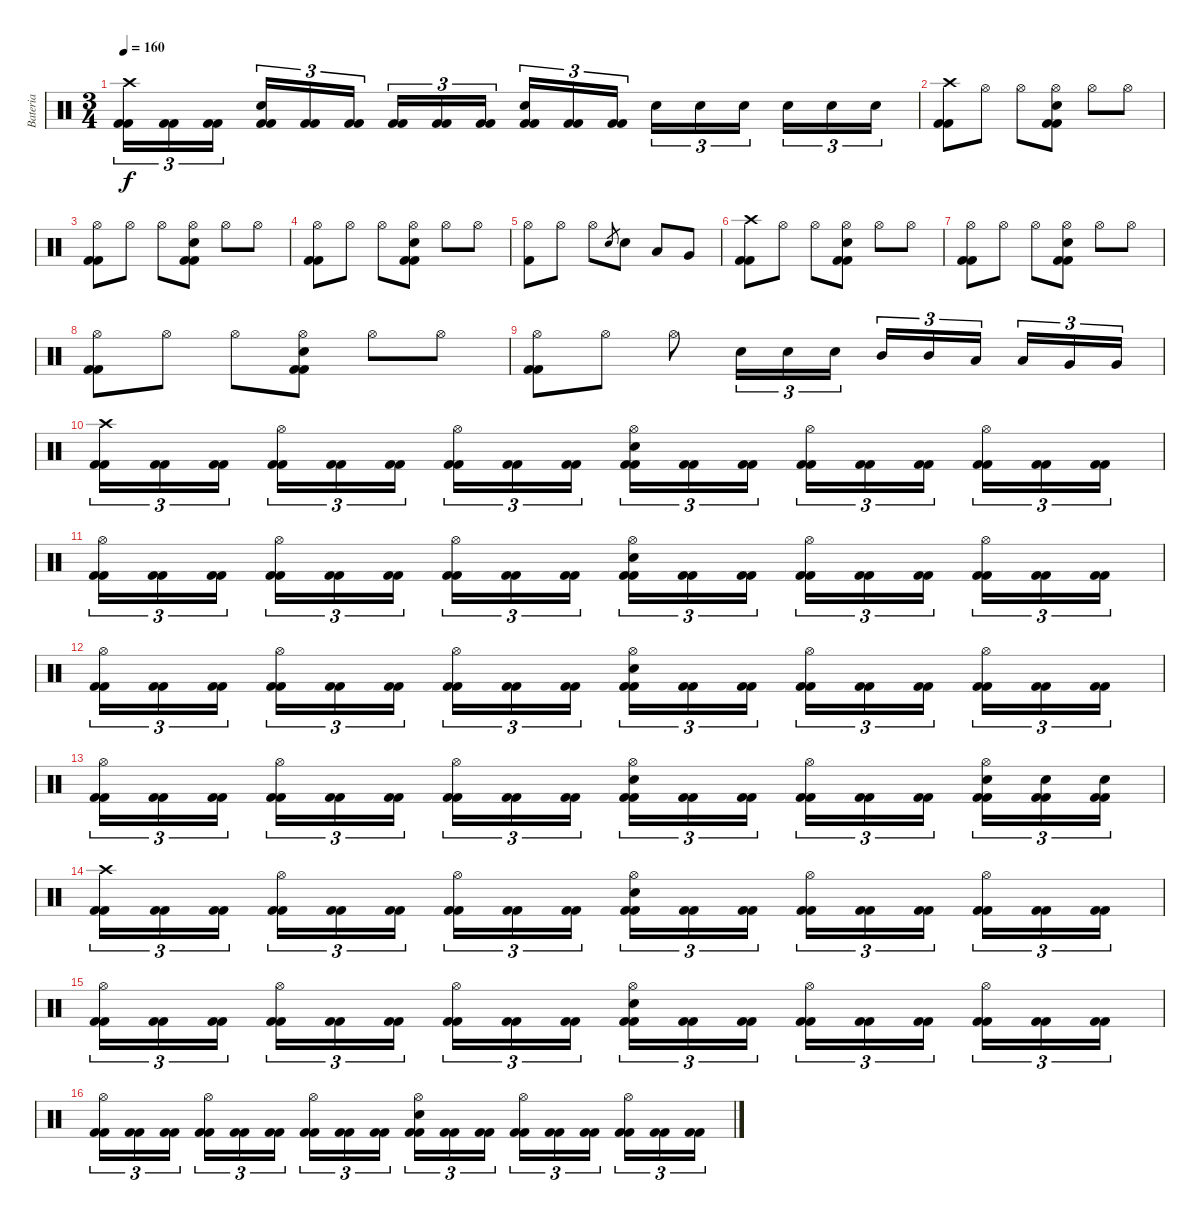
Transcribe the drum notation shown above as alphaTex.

\track ("Bateria" "Bateria") {instrument percussion}
\staff {score}
\articulation defaults
\ts (3 4)
\tempo 160
\clef neutral
\ks c
("Kick (hit) 2" "Kick (hit) 2" "Crash high (hit)").16{tu (3 2) dy f} ("Kick (hit) 2" "Kick (hit) 2").16{tu (3 2)} ("Kick (hit) 2" "Kick (hit) 2").16{tu (3 2)} ("Kick (hit) 2" "Kick (hit) 2" "Snare (hit) 2").16{tu (3 2)} ("Kick (hit) 2" "Kick (hit) 2").16{tu (3 2)} ("Kick (hit) 2" "Kick (hit) 2").16{tu (3 2)} ("Kick (hit) 2" "Kick (hit) 2").16{tu (3 2)} ("Kick (hit) 2" "Kick (hit) 2").16{tu (3 2)} ("Kick (hit) 2" "Kick (hit) 2").16{tu (3 2)} ("Kick (hit) 2" "Kick (hit) 2" "Snare (hit) 2").16{tu (3 2)} ("Kick (hit) 2" "Kick (hit) 2").16{tu (3 2)} ("Kick (hit) 2" "Kick (hit) 2").16{tu (3 2)} "Snare (hit) 2".16{tu (3 2)} "Snare (hit) 2".16{tu (3 2)} "Snare (hit) 2".16{tu (3 2)} "Snare (hit) 2".16{tu (3 2)} "Snare (hit) 2".16{tu (3 2)} "Snare (hit) 2".16{tu (3 2)} |
("Crash high (hit)" "Kick (hit) 2" "Kick (hit) 2").8 "Hi-Hat (open)".8 "Hi-Hat (open)".8 ("Kick (hit) 2" "Kick (hit) 2" "Snare (hit) 2" "Hi-Hat (open)").8 "Hi-Hat (open)".8 "Hi-Hat (open)".8 |
("Hi-Hat (open)" "Kick (hit) 2" "Kick (hit) 2").8 "Hi-Hat (open)".8 "Hi-Hat (open)".8 ("Kick (hit) 2" "Kick (hit) 2" "Snare (hit) 2" "Hi-Hat (open)").8 "Hi-Hat (open)".8 "Hi-Hat (open)".8 |
("Hi-Hat (open)" "Kick (hit) 2" "Kick (hit) 2").8 "Hi-Hat (open)".8 "Hi-Hat (open)".8 ("Kick (hit) 2" "Kick (hit) 2" "Snare (hit) 2" "Hi-Hat (open)").8 "Hi-Hat (open)".8 "Hi-Hat (open)".8 |
("Hi-Hat (open)" "Kick (hit) 2").8 "Hi-Hat (open)".8 "Hi-Hat (open)".8 "Snare (hit) 2".8{gr} "Snare (hit) 2".8 "Low Tom (hit)".8 "Very Low Tom (hit)".8 |
("Crash high (hit)" "Kick (hit) 2" "Kick (hit) 2").8 "Hi-Hat (open)".8 "Hi-Hat (open)".8 ("Kick (hit) 2" "Kick (hit) 2" "Snare (hit) 2" "Hi-Hat (open)").8 "Hi-Hat (open)".8 "Hi-Hat (open)".8 |
("Hi-Hat (open)" "Kick (hit) 2" "Kick (hit) 2").8 "Hi-Hat (open)".8 "Hi-Hat (open)".8 ("Kick (hit) 2" "Kick (hit) 2" "Snare (hit) 2" "Hi-Hat (open)").8 "Hi-Hat (open)".8 "Hi-Hat (open)".8 |
("Hi-Hat (open)" "Kick (hit) 2" "Kick (hit) 2").8 "Hi-Hat (open)".8 "Hi-Hat (open)".8 ("Kick (hit) 2" "Kick (hit) 2" "Snare (hit) 2" "Hi-Hat (open)").8 "Hi-Hat (open)".8 "Hi-Hat (open)".8 |
("Hi-Hat (open)" "Kick (hit) 2" "Kick (hit) 2").8 "Hi-Hat (open)".8 "Hi-Hat (open)".8 "Snare (hit) 2".16{tu (3 2)} "Snare (hit) 2".16{tu (3 2)} "Snare (hit) 2".16{tu (3 2)} "Mid Tom (hit)".16{tu (3 2)} "Mid Tom (hit)".16{tu (3 2)} "Low Tom (hit)".16{tu (3 2)} "Low Tom (hit)".16{tu (3 2)} "Very Low Tom (hit)".16{tu (3 2)} "Very Low Tom (hit)".16{tu (3 2)} |
("Kick (hit) 2" "Kick (hit) 2" "Crash high (hit)").16{tu (3 2)} ("Kick (hit) 2" "Kick (hit) 2").16{tu (3 2)} ("Kick (hit) 2" "Kick (hit) 2").16{tu (3 2)} ("Kick (hit) 2" "Kick (hit) 2" "Hi-Hat (open)").16{tu (3 2)} ("Kick (hit) 2" "Kick (hit) 2").16{tu (3 2)} ("Kick (hit) 2" "Kick (hit) 2").16{tu (3 2)} ("Kick (hit) 2" "Kick (hit) 2" "Hi-Hat (open)").16{tu (3 2)} ("Kick (hit) 2" "Kick (hit) 2").16{tu (3 2)} ("Kick (hit) 2" "Kick (hit) 2").16{tu (3 2)} ("Kick (hit) 2" "Kick (hit) 2" "Snare (hit) 2" "Hi-Hat (open)").16{tu (3 2)} ("Kick (hit) 2" "Kick (hit) 2").16{tu (3 2)} ("Kick (hit) 2" "Kick (hit) 2").16{tu (3 2)} ("Kick (hit) 2" "Kick (hit) 2" "Hi-Hat (open)").16{tu (3 2)} ("Kick (hit) 2" "Kick (hit) 2").16{tu (3 2)} ("Kick (hit) 2" "Kick (hit) 2").16{tu (3 2)} ("Kick (hit) 2" "Kick (hit) 2" "Hi-Hat (open)").16{tu (3 2)} ("Kick (hit) 2" "Kick (hit) 2").16{tu (3 2)} ("Kick (hit) 2" "Kick (hit) 2").16{tu (3 2)} |
("Kick (hit) 2" "Kick (hit) 2" "Hi-Hat (open)").16{tu (3 2)} ("Kick (hit) 2" "Kick (hit) 2").16{tu (3 2)} ("Kick (hit) 2" "Kick (hit) 2").16{tu (3 2)} ("Kick (hit) 2" "Kick (hit) 2" "Hi-Hat (open)").16{tu (3 2)} ("Kick (hit) 2" "Kick (hit) 2").16{tu (3 2)} ("Kick (hit) 2" "Kick (hit) 2").16{tu (3 2)} ("Kick (hit) 2" "Kick (hit) 2" "Hi-Hat (open)").16{tu (3 2)} ("Kick (hit) 2" "Kick (hit) 2").16{tu (3 2)} ("Kick (hit) 2" "Kick (hit) 2").16{tu (3 2)} ("Kick (hit) 2" "Kick (hit) 2" "Snare (hit) 2" "Hi-Hat (open)").16{tu (3 2)} ("Kick (hit) 2" "Kick (hit) 2").16{tu (3 2)} ("Kick (hit) 2" "Kick (hit) 2").16{tu (3 2)} ("Kick (hit) 2" "Kick (hit) 2" "Hi-Hat (open)").16{tu (3 2)} ("Kick (hit) 2" "Kick (hit) 2").16{tu (3 2)} ("Kick (hit) 2" "Kick (hit) 2").16{tu (3 2)} ("Kick (hit) 2" "Kick (hit) 2" "Hi-Hat (open)").16{tu (3 2)} ("Kick (hit) 2" "Kick (hit) 2").16{tu (3 2)} ("Kick (hit) 2" "Kick (hit) 2").16{tu (3 2)} |
("Kick (hit) 2" "Kick (hit) 2" "Hi-Hat (open)").16{tu (3 2)} ("Kick (hit) 2" "Kick (hit) 2").16{tu (3 2)} ("Kick (hit) 2" "Kick (hit) 2").16{tu (3 2)} ("Kick (hit) 2" "Kick (hit) 2" "Hi-Hat (open)").16{tu (3 2)} ("Kick (hit) 2" "Kick (hit) 2").16{tu (3 2)} ("Kick (hit) 2" "Kick (hit) 2").16{tu (3 2)} ("Kick (hit) 2" "Kick (hit) 2" "Hi-Hat (open)").16{tu (3 2)} ("Kick (hit) 2" "Kick (hit) 2").16{tu (3 2)} ("Kick (hit) 2" "Kick (hit) 2").16{tu (3 2)} ("Kick (hit) 2" "Kick (hit) 2" "Snare (hit) 2" "Hi-Hat (open)").16{tu (3 2)} ("Kick (hit) 2" "Kick (hit) 2").16{tu (3 2)} ("Kick (hit) 2" "Kick (hit) 2").16{tu (3 2)} ("Kick (hit) 2" "Kick (hit) 2" "Hi-Hat (open)").16{tu (3 2)} ("Kick (hit) 2" "Kick (hit) 2").16{tu (3 2)} ("Kick (hit) 2" "Kick (hit) 2").16{tu (3 2)} ("Kick (hit) 2" "Kick (hit) 2" "Hi-Hat (open)").16{tu (3 2)} ("Kick (hit) 2" "Kick (hit) 2").16{tu (3 2)} ("Kick (hit) 2" "Kick (hit) 2").16{tu (3 2)} |
("Kick (hit) 2" "Kick (hit) 2" "Hi-Hat (open)").16{tu (3 2)} ("Kick (hit) 2" "Kick (hit) 2").16{tu (3 2)} ("Kick (hit) 2" "Kick (hit) 2").16{tu (3 2)} ("Kick (hit) 2" "Kick (hit) 2" "Hi-Hat (open)").16{tu (3 2)} ("Kick (hit) 2" "Kick (hit) 2").16{tu (3 2)} ("Kick (hit) 2" "Kick (hit) 2").16{tu (3 2)} ("Kick (hit) 2" "Kick (hit) 2" "Hi-Hat (open)").16{tu (3 2)} ("Kick (hit) 2" "Kick (hit) 2").16{tu (3 2)} ("Kick (hit) 2" "Kick (hit) 2").16{tu (3 2)} ("Kick (hit) 2" "Kick (hit) 2" "Snare (hit) 2" "Hi-Hat (open)").16{tu (3 2)} ("Kick (hit) 2" "Kick (hit) 2").16{tu (3 2)} ("Kick (hit) 2" "Kick (hit) 2").16{tu (3 2)} ("Kick (hit) 2" "Kick (hit) 2" "Hi-Hat (open)").16{tu (3 2)} ("Kick (hit) 2" "Kick (hit) 2").16{tu (3 2)} ("Kick (hit) 2" "Kick (hit) 2").16{tu (3 2)} ("Kick (hit) 2" "Kick (hit) 2" "Snare (hit) 2" "Hi-Hat (open)").16{tu (3 2)} ("Kick (hit) 2" "Kick (hit) 2" "Snare (hit) 2").16{tu (3 2)} ("Kick (hit) 2" "Kick (hit) 2" "Snare (hit) 2").16{tu (3 2)} |
("Kick (hit) 2" "Kick (hit) 2" "Crash high (hit)").16{tu (3 2)} ("Kick (hit) 2" "Kick (hit) 2").16{tu (3 2)} ("Kick (hit) 2" "Kick (hit) 2").16{tu (3 2)} ("Kick (hit) 2" "Kick (hit) 2" "Hi-Hat (open)").16{tu (3 2)} ("Kick (hit) 2" "Kick (hit) 2").16{tu (3 2)} ("Kick (hit) 2" "Kick (hit) 2").16{tu (3 2)} ("Kick (hit) 2" "Kick (hit) 2" "Hi-Hat (open)").16{tu (3 2)} ("Kick (hit) 2" "Kick (hit) 2").16{tu (3 2)} ("Kick (hit) 2" "Kick (hit) 2").16{tu (3 2)} ("Kick (hit) 2" "Kick (hit) 2" "Snare (hit) 2" "Hi-Hat (open)").16{tu (3 2)} ("Kick (hit) 2" "Kick (hit) 2").16{tu (3 2)} ("Kick (hit) 2" "Kick (hit) 2").16{tu (3 2)} ("Kick (hit) 2" "Kick (hit) 2" "Hi-Hat (open)").16{tu (3 2)} ("Kick (hit) 2" "Kick (hit) 2").16{tu (3 2)} ("Kick (hit) 2" "Kick (hit) 2").16{tu (3 2)} ("Kick (hit) 2" "Kick (hit) 2" "Hi-Hat (open)").16{tu (3 2)} ("Kick (hit) 2" "Kick (hit) 2").16{tu (3 2)} ("Kick (hit) 2" "Kick (hit) 2").16{tu (3 2)} |
("Kick (hit) 2" "Kick (hit) 2" "Hi-Hat (open)").16{tu (3 2)} ("Kick (hit) 2" "Kick (hit) 2").16{tu (3 2)} ("Kick (hit) 2" "Kick (hit) 2").16{tu (3 2)} ("Kick (hit) 2" "Kick (hit) 2" "Hi-Hat (open)").16{tu (3 2)} ("Kick (hit) 2" "Kick (hit) 2").16{tu (3 2)} ("Kick (hit) 2" "Kick (hit) 2").16{tu (3 2)} ("Kick (hit) 2" "Kick (hit) 2" "Hi-Hat (open)").16{tu (3 2)} ("Kick (hit) 2" "Kick (hit) 2").16{tu (3 2)} ("Kick (hit) 2" "Kick (hit) 2").16{tu (3 2)} ("Kick (hit) 2" "Kick (hit) 2" "Snare (hit) 2" "Hi-Hat (open)").16{tu (3 2)} ("Kick (hit) 2" "Kick (hit) 2").16{tu (3 2)} ("Kick (hit) 2" "Kick (hit) 2").16{tu (3 2)} ("Kick (hit) 2" "Kick (hit) 2" "Hi-Hat (open)").16{tu (3 2)} ("Kick (hit) 2" "Kick (hit) 2").16{tu (3 2)} ("Kick (hit) 2" "Kick (hit) 2").16{tu (3 2)} ("Kick (hit) 2" "Kick (hit) 2" "Hi-Hat (open)").16{tu (3 2)} ("Kick (hit) 2" "Kick (hit) 2").16{tu (3 2)} ("Kick (hit) 2" "Kick (hit) 2").16{tu (3 2)} |
("Kick (hit) 2" "Kick (hit) 2" "Hi-Hat (open)").16{tu (3 2)} ("Kick (hit) 2" "Kick (hit) 2").16{tu (3 2)} ("Kick (hit) 2" "Kick (hit) 2").16{tu (3 2)} ("Kick (hit) 2" "Kick (hit) 2" "Hi-Hat (open)").16{tu (3 2)} ("Kick (hit) 2" "Kick (hit) 2").16{tu (3 2)} ("Kick (hit) 2" "Kick (hit) 2").16{tu (3 2)} ("Kick (hit) 2" "Kick (hit) 2" "Hi-Hat (open)").16{tu (3 2)} ("Kick (hit) 2" "Kick (hit) 2").16{tu (3 2)} ("Kick (hit) 2" "Kick (hit) 2").16{tu (3 2)} ("Kick (hit) 2" "Kick (hit) 2" "Snare (hit) 2" "Hi-Hat (open)").16{tu (3 2)} ("Kick (hit) 2" "Kick (hit) 2").16{tu (3 2)} ("Kick (hit) 2" "Kick (hit) 2").16{tu (3 2)} ("Kick (hit) 2" "Kick (hit) 2" "Hi-Hat (open)").16{tu (3 2)} ("Kick (hit) 2" "Kick (hit) 2").16{tu (3 2)} ("Kick (hit) 2" "Kick (hit) 2").16{tu (3 2)} ("Kick (hit) 2" "Kick (hit) 2" "Hi-Hat (open)").16{tu (3 2)} ("Kick (hit) 2" "Kick (hit) 2").16{tu (3 2)} ("Kick (hit) 2" "Kick (hit) 2").16{tu (3 2)}
